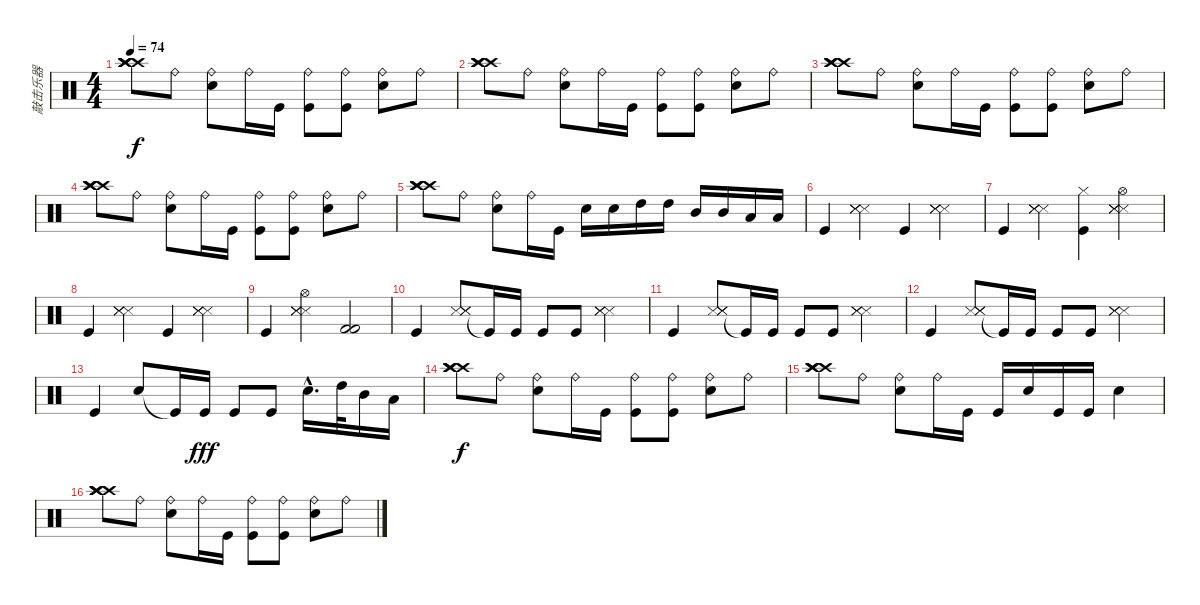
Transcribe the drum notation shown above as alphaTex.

\track ("敲击乐器" "敲击乐器") {instrument percussion}
\staff {score}
\articulation defaults
\ts (4 4)
\tempo 74
\clef neutral
\ks c
("Crash high (hit)" "Crash high (hit)" "Crash high (hit)" "Crash high (hit)").8{dy f} "Ride (bell)".8 ("Ride (bell)" "Snare (hit) 2").8 "Ride (bell)".16 "Kick (hit)".16 ("Ride (bell)" "Kick (hit)").8 ("Ride (bell)" "Kick (hit)").8 ("Ride (bell)" "Snare (hit) 2").8 "Ride (bell)".8 |
("Crash high (hit)" "Crash high (hit)" "Crash high (hit)" "Crash high (hit)").8 "Ride (bell)".8 ("Ride (bell)" "Snare (hit) 2").8 "Ride (bell)".16 "Kick (hit)".16 ("Ride (bell)" "Kick (hit)").8 ("Ride (bell)" "Kick (hit)").8 ("Ride (bell)" "Snare (hit) 2").8 "Ride (bell)".8 |
("Crash high (hit)" "Crash high (hit)" "Crash high (hit)" "Crash high (hit)").8 "Ride (bell)".8 ("Ride (bell)" "Snare (hit) 2").8 "Ride (bell)".16 "Kick (hit)".16 ("Ride (bell)" "Kick (hit)").8 ("Ride (bell)" "Kick (hit)").8 ("Ride (bell)" "Snare (hit) 2").8 "Ride (bell)".8 |
("Crash high (hit)" "Crash high (hit)" "Crash high (hit)" "Crash high (hit)").8 "Ride (bell)".8 ("Ride (bell)" "Snare (hit) 2").8 "Ride (bell)".16 "Kick (hit)".16 ("Ride (bell)" "Kick (hit)").8 ("Ride (bell)" "Kick (hit)").8 ("Ride (bell)" "Snare (hit) 2").8 "Ride (bell)".8 |
("Crash high (hit)" "Crash high (hit)" "Crash high (hit)" "Crash high (hit)").8 "Ride (bell)".8 ("Ride (bell)" "Snare (hit) 2").8 "Ride (bell)".16 "Kick (hit)".16 "Snare (hit) 2".16 "Snare (hit) 2".16 "High Tom (hit)".16 "High Tom (hit)".16 "Mid Tom (hit)".16 "Mid Tom (hit)".16 "Low Tom (hit)".16 "Low Tom (hit)".16 |
"Kick (hit)".4 ("Snare (side stick) 3" "Snare (side stick) 3" "Snare (side stick) 3" "Snare (side stick) 3").4 "Kick (hit)".4 ("Snare (side stick) 3" "Snare (side stick) 3" "Snare (side stick) 3" "Snare (side stick) 3").4 |
"Kick (hit)".4 ("Snare (side stick) 3" "Snare (side stick) 3" "Snare (side stick) 3" "Snare (side stick) 3").4 ("Kick (hit)" "Hi-Hat (closed)").4 ("Snare (side stick) 3" "Snare (side stick) 3" "Snare (side stick) 3" "Snare (side stick) 3" "Hi-Hat (open)").4 |
"Kick (hit)".4 ("Snare (side stick) 3" "Snare (side stick) 3" "Snare (side stick) 3" "Snare (side stick) 3").4 "Kick (hit)".4 ("Snare (side stick) 3" "Snare (side stick) 3" "Snare (side stick) 3" "Snare (side stick) 3").4 |
"Kick (hit)".4 ("Snare (side stick) 3" "Snare (side stick) 3" "Snare (side stick) 3" "Snare (side stick) 3" "Hi-Hat (open)").4 ("Kick (hit) 2" "Kick (hit) 2").2 |
"Kick (hit)".4 ("Snare (side stick) 3" "Snare (side stick) 3" "Snare (side stick) 3" "Snare (side stick) 3").8 "Kick (hit)"{t}.16 "Kick (hit)".16 "Kick (hit)".8 "Kick (hit)".8 ("Snare (side stick) 3" "Snare (side stick) 3" "Snare (side stick) 3" "Snare (side stick) 3").4 |
"Kick (hit)".4 ("Snare (side stick) 3" "Snare (side stick) 3" "Snare (side stick) 3" "Snare (side stick) 3").8 "Kick (hit)"{t}.16 "Kick (hit)".16 "Kick (hit)".8 "Kick (hit)".8 ("Snare (side stick) 3" "Snare (side stick) 3" "Snare (side stick) 3" "Snare (side stick) 3").4 |
"Kick (hit)".4 ("Snare (side stick) 3" "Snare (side stick) 3" "Snare (side stick) 3" "Snare (side stick) 3").8 "Kick (hit)"{t}.16 "Kick (hit)".16 "Kick (hit)".8 "Kick (hit)".8 ("Snare (side stick) 3" "Snare (side stick) 3" "Snare (side stick) 3" "Snare (side stick) 3").4 |
"Kick (hit)".4 "Snare (hit) 2".8 "Kick (hit)"{t}.16 "Kick (hit)".16{dy fff} "Kick (hit)".8 "Kick (hit)".8 "Snare (hit) 2"{hac}.16{d} "High Tom (hit)".32 "Mid Tom (hit)".16 "Low Tom (hit)".16 |
("Crash high (hit)" "Crash high (hit)" "Crash high (hit)" "Crash high (hit)").8{dy f} "Ride (bell)".8 ("Ride (bell)" "Snare (hit) 2").8 "Ride (bell)".16 "Kick (hit)".16 ("Ride (bell)" "Kick (hit)").8 ("Ride (bell)" "Kick (hit)").8 ("Ride (bell)" "Snare (hit) 2").8 "Ride (bell)".8 |
("Crash high (hit)" "Crash high (hit)" "Crash high (hit)" "Crash high (hit)").8 "Ride (bell)".8 ("Ride (bell)" "Snare (hit) 2").8 "Ride (bell)".16 "Kick (hit)".16 "Kick (hit)".16 "Snare (hit) 2".16 "Kick (hit)".16 "Kick (hit)".16 "Snare (hit) 2".4 |
("Crash high (hit)" "Crash high (hit)" "Crash high (hit)" "Crash high (hit)").8 "Ride (bell)".8 ("Ride (bell)" "Snare (hit) 2").8 "Ride (bell)".16 "Kick (hit)".16 ("Ride (bell)" "Kick (hit)").8 ("Ride (bell)" "Kick (hit)").8 ("Ride (bell)" "Snare (hit) 2").8 "Ride (bell)".8
